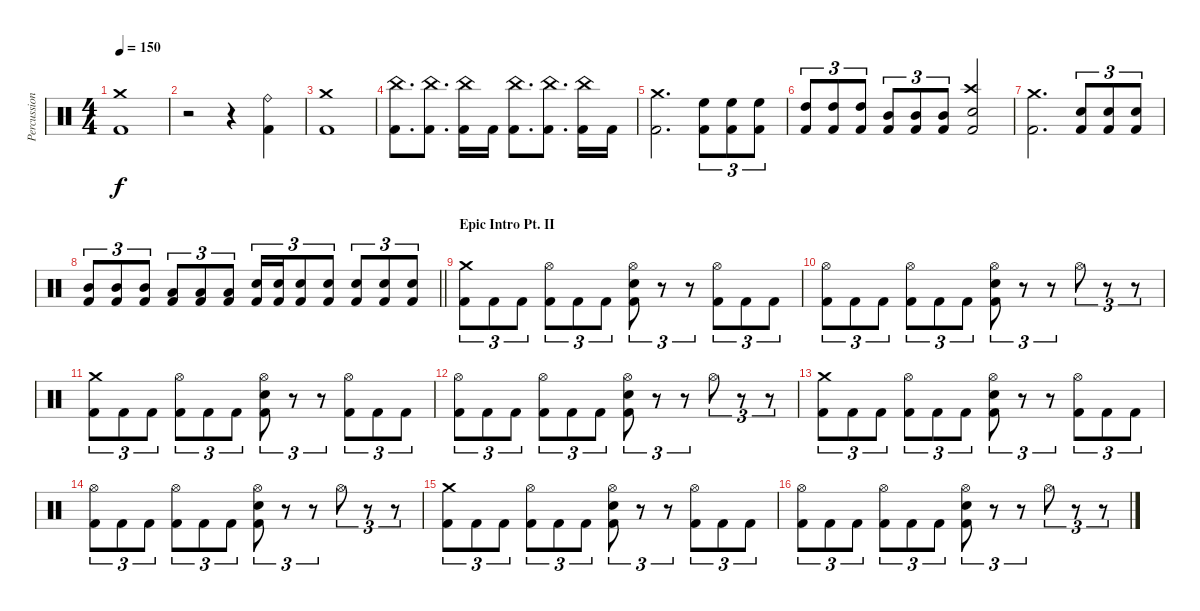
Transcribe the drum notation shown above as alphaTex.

\track ("Percussion" "Percussion") {instrument percussion}
\staff {score}
\articulation defaults
\ts (4 4)
\tempo 150
\clef neutral
\ks c
("Crash medium (hit)" "Kick (hit) 2").1{dy f} |
r.2 r.4 ("Ride (bell)" "Kick (hit) 2").4 |
("Crash medium (hit)" "Kick (hit) 2").1 |
("China (hit)" "Kick (hit) 2").8{d} ("China (hit)" "Kick (hit) 2").8{d} ("China (hit)" "Kick (hit) 2").16 "Kick (hit) 2".16 ("China (hit)" "Kick (hit) 2").8{d} ("China (hit)" "Kick (hit) 2").8{d} ("China (hit)" "Kick (hit) 2").16 "Kick (hit) 2".16 |
("Crash medium (hit)" "Kick (hit) 2").2{d} ("High Floor Tom (hit)" "Kick (hit) 2").8{tu (3 2)} ("High Floor Tom (hit)" "Kick (hit) 2").8{tu (3 2)} ("High Floor Tom (hit)" "Kick (hit) 2").8{tu (3 2)} |
("High Tom (hit)" "Kick (hit) 2").8{tu (3 2)} ("High Tom (hit)" "Kick (hit) 2").8{tu (3 2)} ("High Tom (hit)" "Kick (hit) 2").8{tu (3 2)} ("Mid Tom (hit)" "Kick (hit) 2").8{tu (3 2)} ("Mid Tom (hit)" "Kick (hit) 2").8{tu (3 2)} ("Mid Tom (hit)" "Kick (hit) 2").8{tu (3 2)} ("Crash high (hit)" "Electric Snare (hit)" "Kick (hit) 2").2 |
("Crash medium (hit)" "Kick (hit) 2").2{d} ("Electric Snare (hit)" "Kick (hit) 2").8{tu (3 2)} ("Electric Snare (hit)" "Kick (hit) 2").8{tu (3 2)} ("Electric Snare (hit)" "Kick (hit) 2").8{tu (3 2)} |
\barLineRight lightlight
("Mid Tom (hit)" "Kick (hit) 2").8{tu (3 2)} ("Mid Tom (hit)" "Kick (hit) 2").8{tu (3 2)} ("Mid Tom (hit)" "Kick (hit) 2").8{tu (3 2)} ("Low Tom (hit)" "Kick (hit) 2").8{tu (3 2)} ("Low Tom (hit)" "Kick (hit) 2").8{tu (3 2)} ("Low Tom (hit)" "Kick (hit) 2").8{tu (3 2)} ("Electric Snare (hit)" "Kick (hit) 2").16{tu (3 2)} ("Electric Snare (hit)" "Kick (hit) 2").16{tu (3 2)} ("Electric Snare (hit)" "Kick (hit) 2").8{tu (3 2)} ("Electric Snare (hit)" "Kick (hit) 2").8{tu (3 2)} ("Electric Snare (hit)" "Kick (hit) 2").8{tu (3 2)} ("Electric Snare (hit)" "Kick (hit) 2").8{tu (3 2)} ("Electric Snare (hit)" "Kick (hit) 2").8{tu (3 2)} |
\section ("" "Epic Intro Pt. II")
("Crash medium (hit)" "Kick (hit) 2").8{tu (3 2)} "Kick (hit) 2".8{tu (3 2)} "Kick (hit) 2".8{tu (3 2)} ("Hi-Hat (open)" "Kick (hit) 2").8{tu (3 2)} "Kick (hit) 2".8{tu (3 2)} "Kick (hit) 2".8{tu (3 2)} ("Hi-Hat (open)" "Electric Snare (hit)" "Kick (hit) 2").8{tu (3 2)} r.8{tu (3 2)} r.8{tu (3 2)} ("Hi-Hat (open)" "Kick (hit) 2").8{tu (3 2)} "Kick (hit) 2".8{tu (3 2)} "Kick (hit) 2".8{tu (3 2)} |
("Hi-Hat (open)" "Kick (hit) 2").8{tu (3 2)} "Kick (hit) 2".8{tu (3 2)} "Kick (hit) 2".8{tu (3 2)} ("Hi-Hat (open)" "Kick (hit) 2").8{tu (3 2)} "Kick (hit) 2".8{tu (3 2)} "Kick (hit) 2".8{tu (3 2)} ("Hi-Hat (open)" "Electric Snare (hit)" "Kick (hit) 2").8{tu (3 2)} r.8{tu (3 2)} r.8{tu (3 2)} "Hi-Hat (open)".8{tu (3 2)} r.8{tu (3 2)} r.8{tu (3 2)} |
("Crash medium (hit)" "Kick (hit) 2").8{tu (3 2)} "Kick (hit) 2".8{tu (3 2)} "Kick (hit) 2".8{tu (3 2)} ("Hi-Hat (open)" "Kick (hit) 2").8{tu (3 2)} "Kick (hit) 2".8{tu (3 2)} "Kick (hit) 2".8{tu (3 2)} ("Hi-Hat (open)" "Electric Snare (hit)" "Kick (hit) 2").8{tu (3 2)} r.8{tu (3 2)} r.8{tu (3 2)} ("Hi-Hat (open)" "Kick (hit) 2").8{tu (3 2)} "Kick (hit) 2".8{tu (3 2)} "Kick (hit) 2".8{tu (3 2)} |
("Hi-Hat (open)" "Kick (hit) 2").8{tu (3 2)} "Kick (hit) 2".8{tu (3 2)} "Kick (hit) 2".8{tu (3 2)} ("Hi-Hat (open)" "Kick (hit) 2").8{tu (3 2)} "Kick (hit) 2".8{tu (3 2)} "Kick (hit) 2".8{tu (3 2)} ("Hi-Hat (open)" "Electric Snare (hit)" "Kick (hit) 2").8{tu (3 2)} r.8{tu (3 2)} r.8{tu (3 2)} "Hi-Hat (open)".8{tu (3 2)} r.8{tu (3 2)} r.8{tu (3 2)} |
("Crash medium (hit)" "Kick (hit) 2").8{tu (3 2)} "Kick (hit) 2".8{tu (3 2)} "Kick (hit) 2".8{tu (3 2)} ("Hi-Hat (open)" "Kick (hit) 2").8{tu (3 2)} "Kick (hit) 2".8{tu (3 2)} "Kick (hit) 2".8{tu (3 2)} ("Hi-Hat (open)" "Electric Snare (hit)" "Kick (hit) 2").8{tu (3 2)} r.8{tu (3 2)} r.8{tu (3 2)} ("Hi-Hat (open)" "Kick (hit) 2").8{tu (3 2)} "Kick (hit) 2".8{tu (3 2)} "Kick (hit) 2".8{tu (3 2)} |
("Hi-Hat (open)" "Kick (hit) 2").8{tu (3 2)} "Kick (hit) 2".8{tu (3 2)} "Kick (hit) 2".8{tu (3 2)} ("Hi-Hat (open)" "Kick (hit) 2").8{tu (3 2)} "Kick (hit) 2".8{tu (3 2)} "Kick (hit) 2".8{tu (3 2)} ("Hi-Hat (open)" "Electric Snare (hit)" "Kick (hit) 2").8{tu (3 2)} r.8{tu (3 2)} r.8{tu (3 2)} "Hi-Hat (open)".8{tu (3 2)} r.8{tu (3 2)} r.8{tu (3 2)} |
("Crash medium (hit)" "Kick (hit) 2").8{tu (3 2)} "Kick (hit) 2".8{tu (3 2)} "Kick (hit) 2".8{tu (3 2)} ("Hi-Hat (open)" "Kick (hit) 2").8{tu (3 2)} "Kick (hit) 2".8{tu (3 2)} "Kick (hit) 2".8{tu (3 2)} ("Hi-Hat (open)" "Electric Snare (hit)" "Kick (hit) 2").8{tu (3 2)} r.8{tu (3 2)} r.8{tu (3 2)} ("Hi-Hat (open)" "Kick (hit) 2").8{tu (3 2)} "Kick (hit) 2".8{tu (3 2)} "Kick (hit) 2".8{tu (3 2)} |
("Hi-Hat (open)" "Kick (hit) 2").8{tu (3 2)} "Kick (hit) 2".8{tu (3 2)} "Kick (hit) 2".8{tu (3 2)} ("Hi-Hat (open)" "Kick (hit) 2").8{tu (3 2)} "Kick (hit) 2".8{tu (3 2)} "Kick (hit) 2".8{tu (3 2)} ("Hi-Hat (open)" "Electric Snare (hit)" "Kick (hit) 2").8{tu (3 2)} r.8{tu (3 2)} r.8{tu (3 2)} "Hi-Hat (open)".8{tu (3 2)} r.8{tu (3 2)} r.8{tu (3 2)}
